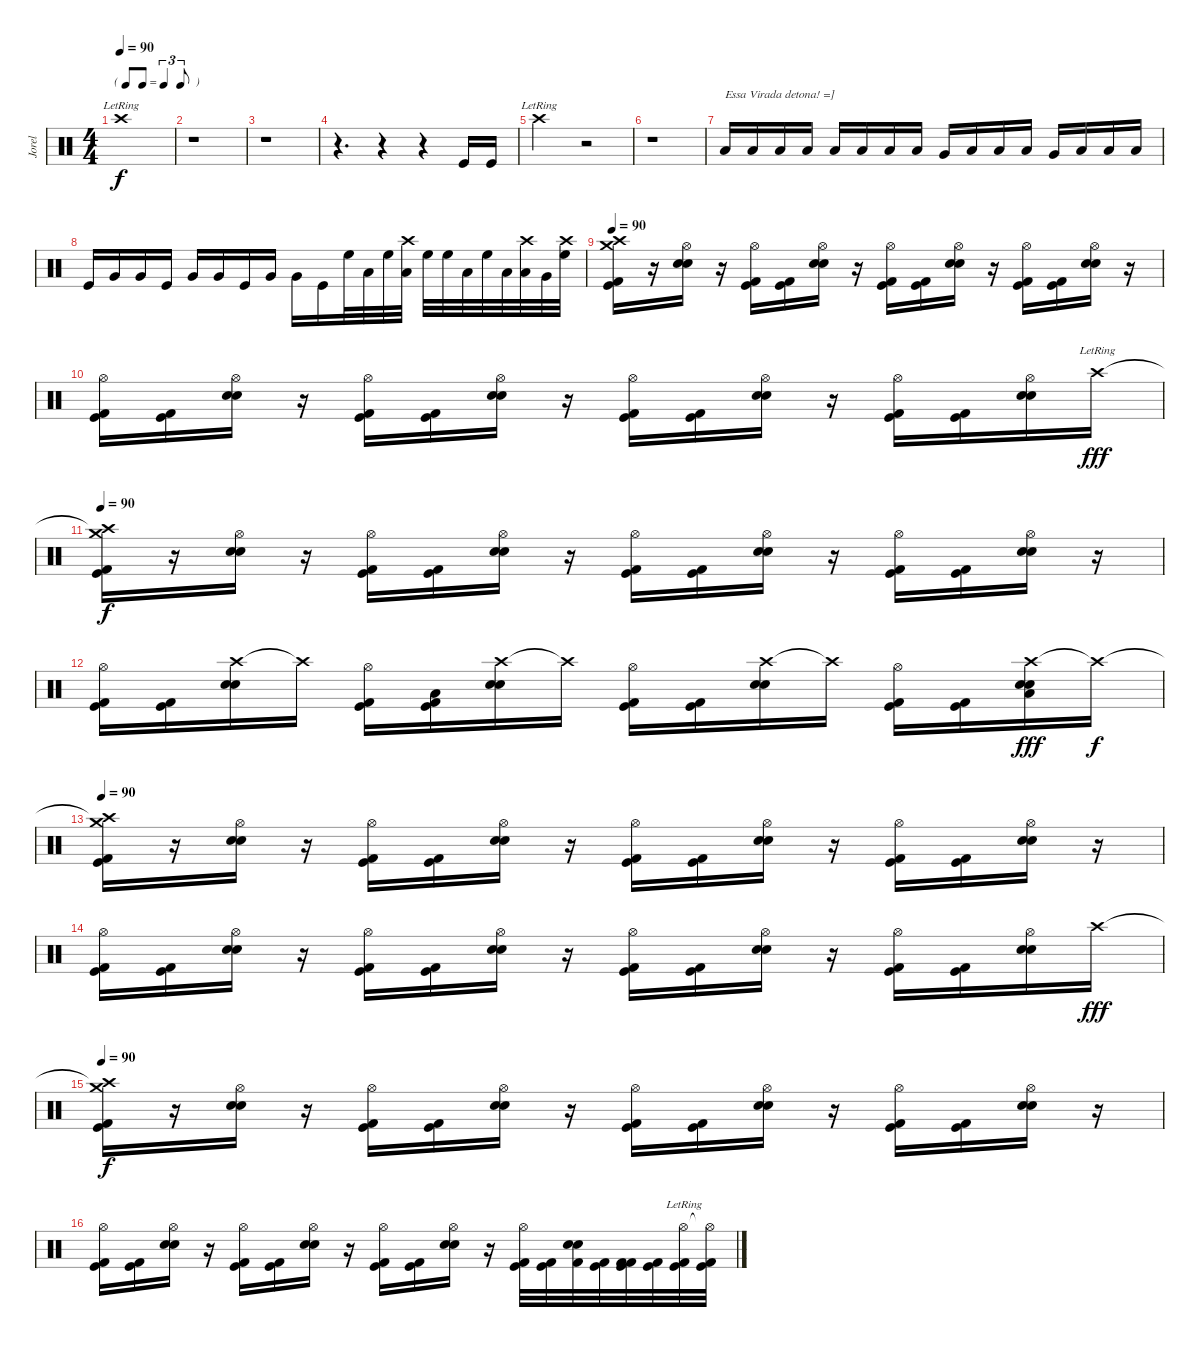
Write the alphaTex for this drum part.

\track ("Jorel" "Jorel") {instrument percussion}
\staff {score}
\articulation defaults
\ts (4 4)
\tf triplet8th
\tempo 90
\clef neutral
\ks c "Crash high (hit)"{lr}.1{dy f}
|
r.1 |
r.1 |
r.4{d} r.4 r.4 "Kick (hit)".16 "Kick (hit)".16 |
"Crash high (hit)"{lr}.2 r.2 |
r.1 |
"Low Tom (hit)".16{txt "Essa Virada detona! =]"} "Low Tom (hit)".16 "Low Tom (hit)".16 "Low Tom (hit)".16 "Low Tom (hit)".16 "Low Tom (hit)".16 "Low Tom (hit)".16 "Low Tom (hit)".16 "Very Low Tom (hit)".16 "Low Tom (hit)".16 "Low Tom (hit)".16 "Low Tom (hit)".16 "Very Low Tom (hit)".16 "Low Tom (hit)".16 "Low Tom (hit)".16 "Low Tom (hit)".16 |
"Kick (hit)".16 "Very Low Tom (hit)".16 "Very Low Tom (hit)".16 "Kick (hit)".16 "Very Low Tom (hit)".16 "Very Low Tom (hit)".16 "Kick (hit)".16 "Very Low Tom (hit)".16 "Very Low Tom (hit)".16 "Kick (hit)".16 "High Floor Tom (hit)".32 "Low Tom (hit)".32 "High Floor Tom (hit)".32 ("Crash high (hit)" "Low Tom (hit)").32 "High Floor Tom (hit)".32 "High Floor Tom (hit)".32 "Low Tom (hit)".32 "High Floor Tom (hit)".32 "Low Tom (hit)".32 ("Crash high (hit)" "Low Tom (hit)").32 "Very Low Tom (hit)".32 ("Crash high (hit)" "High Floor Tom (hit)").32 |
\tempo 90
("Crash high (hit)" "Crash medium (hit)" "Kick (hit)" "Kick (hit) 2").16 r.16 ("Hi-Hat (open)" "Electric Snare (hit)" "Snare (hit) 2").16 r.16 ("Hi-Hat (open)" "Kick (hit) 2" "Kick (hit)").16 ("Kick (hit) 2" "Kick (hit)").16 ("Hi-Hat (open)" "Electric Snare (hit)" "Snare (hit) 2").16 r.16 ("Hi-Hat (open)" "Kick (hit)" "Kick (hit) 2").16 ("Kick (hit) 2" "Kick (hit)").16 ("Hi-Hat (open)" "Electric Snare (hit)" "Snare (hit) 2").16 r.16 ("Hi-Hat (open)" "Kick (hit) 2" "Kick (hit)").16 ("Kick (hit) 2" "Kick (hit)").16 ("Hi-Hat (open)" "Electric Snare (hit)" "Snare (hit) 2").16 r.16 |
("Hi-Hat (open)" "Kick (hit)" "Kick (hit) 2").16 ("Kick (hit) 2" "Kick (hit)").16 ("Hi-Hat (open)" "Electric Snare (hit)" "Snare (hit) 2").16 r.16 ("Hi-Hat (open)" "Kick (hit) 2" "Kick (hit)").16 ("Kick (hit) 2" "Kick (hit)").16 ("Hi-Hat (open)" "Electric Snare (hit)" "Snare (hit) 2").16 r.16 ("Hi-Hat (open)" "Kick (hit)" "Kick (hit) 2").16 ("Kick (hit) 2" "Kick (hit)").16 ("Hi-Hat (open)" "Electric Snare (hit)" "Snare (hit) 2").16 r.16 ("Hi-Hat (open)" "Kick (hit) 2" "Kick (hit)").16 ("Kick (hit) 2" "Kick (hit)").16 ("Hi-Hat (open)" "Electric Snare (hit)" "Snare (hit) 2").16 "Crash high (hit)"{lr}.16{dy fff} |
\tempo 90
("Crash high (hit)"{t} "Crash medium (hit)" "Kick (hit)" "Kick (hit) 2").16{dy f} r.16 ("Hi-Hat (open)" "Electric Snare (hit)" "Snare (hit) 2").16 r.16 ("Hi-Hat (open)" "Kick (hit) 2" "Kick (hit)").16 ("Kick (hit) 2" "Kick (hit)").16 ("Hi-Hat (open)" "Electric Snare (hit)" "Snare (hit) 2").16 r.16 ("Hi-Hat (open)" "Kick (hit)" "Kick (hit) 2").16 ("Kick (hit) 2" "Kick (hit)").16 ("Hi-Hat (open)" "Electric Snare (hit)" "Snare (hit) 2").16 r.16 ("Hi-Hat (open)" "Kick (hit) 2" "Kick (hit)").16 ("Kick (hit) 2" "Kick (hit)").16 ("Hi-Hat (open)" "Electric Snare (hit)" "Snare (hit) 2").16 r.16 |
("Hi-Hat (open)" "Kick (hit)" "Kick (hit) 2").16 ("Kick (hit) 2" "Kick (hit)").16 ("Crash high (hit)" "Electric Snare (hit)" "Snare (hit) 2").16 "Crash high (hit)"{t}.16 ("Hi-Hat (open)" "Kick (hit) 2" "Kick (hit)").16 ("Kick (hit) 2" "Kick (hit)" "Low Tom (hit)").16 ("Crash high (hit)" "Electric Snare (hit)" "Snare (hit) 2").16 "Crash high (hit)"{t}.16 ("Hi-Hat (open)" "Kick (hit)" "Kick (hit) 2").16 ("Kick (hit) 2" "Kick (hit)").16 ("Crash high (hit)" "Electric Snare (hit)" "Snare (hit) 2").16 "Crash high (hit)"{t}.16 ("Hi-Hat (open)" "Kick (hit) 2" "Kick (hit)").16 ("Kick (hit) 2" "Kick (hit)").16 ("Crash high (hit)" "Electric Snare (hit)" "Snare (hit) 2" "Low Tom (hit)").16{dy fff} "Crash high (hit)"{t}.16{dy f} |
\tempo 90
("Crash high (hit)"{t} "Crash medium (hit)" "Kick (hit)" "Kick (hit) 2").16 r.16 ("Hi-Hat (open)" "Electric Snare (hit)" "Snare (hit) 2").16 r.16 ("Hi-Hat (open)" "Kick (hit) 2" "Kick (hit)").16 ("Kick (hit) 2" "Kick (hit)").16 ("Hi-Hat (open)" "Electric Snare (hit)" "Snare (hit) 2").16 r.16 ("Hi-Hat (open)" "Kick (hit)" "Kick (hit) 2").16 ("Kick (hit) 2" "Kick (hit)").16 ("Hi-Hat (open)" "Electric Snare (hit)" "Snare (hit) 2").16 r.16 ("Hi-Hat (open)" "Kick (hit) 2" "Kick (hit)").16 ("Kick (hit) 2" "Kick (hit)").16 ("Hi-Hat (open)" "Electric Snare (hit)" "Snare (hit) 2").16 r.16 |
("Hi-Hat (open)" "Kick (hit)" "Kick (hit) 2").16 ("Kick (hit) 2" "Kick (hit)").16 ("Hi-Hat (open)" "Electric Snare (hit)" "Snare (hit) 2").16 r.16 ("Hi-Hat (open)" "Kick (hit) 2" "Kick (hit)").16 ("Kick (hit) 2" "Kick (hit)").16 ("Hi-Hat (open)" "Electric Snare (hit)" "Snare (hit) 2").16 r.16 ("Hi-Hat (open)" "Kick (hit)" "Kick (hit) 2").16 ("Kick (hit) 2" "Kick (hit)").16 ("Hi-Hat (open)" "Electric Snare (hit)" "Snare (hit) 2").16 r.16 ("Hi-Hat (open)" "Kick (hit) 2" "Kick (hit)").16 ("Kick (hit) 2" "Kick (hit)").16 ("Hi-Hat (open)" "Electric Snare (hit)" "Snare (hit) 2").16 "Crash high (hit)".16{dy fff} |
\tempo 90
("Crash high (hit)"{t} "Crash medium (hit)" "Kick (hit)" "Kick (hit) 2").16{dy f} r.16 ("Hi-Hat (open)" "Electric Snare (hit)" "Snare (hit) 2").16 r.16 ("Hi-Hat (open)" "Kick (hit) 2" "Kick (hit)").16 ("Kick (hit) 2" "Kick (hit)").16 ("Hi-Hat (open)" "Electric Snare (hit)" "Snare (hit) 2").16 r.16 ("Hi-Hat (open)" "Kick (hit)" "Kick (hit) 2").16 ("Kick (hit) 2" "Kick (hit)").16 ("Hi-Hat (open)" "Electric Snare (hit)" "Snare (hit) 2").16 r.16 ("Hi-Hat (open)" "Kick (hit) 2" "Kick (hit)").16 ("Kick (hit) 2" "Kick (hit)").16 ("Hi-Hat (open)" "Electric Snare (hit)" "Snare (hit) 2").16 r.16 |
("Hi-Hat (open)" "Kick (hit)" "Kick (hit) 2").16 ("Kick (hit) 2" "Kick (hit)").16 ("Hi-Hat (open)" "Electric Snare (hit)" "Snare (hit) 2").16 r.16 ("Hi-Hat (open)" "Kick (hit) 2" "Kick (hit)").16 ("Kick (hit) 2" "Kick (hit)").16 ("Hi-Hat (open)" "Electric Snare (hit)" "Snare (hit) 2").16 r.16 ("Hi-Hat (open)" "Kick (hit)" "Kick (hit) 2").16 ("Kick (hit) 2" "Kick (hit)").16 ("Hi-Hat (open)" "Electric Snare (hit)" "Snare (hit) 2").16 r.16 ("Hi-Hat (open)" "Kick (hit) 2" "Kick (hit)").32 ("Kick (hit) 2" "Kick (hit)").32 ("Kick (hit) 2" "Electric Snare (hit)" "Snare (hit) 2").32 ("Kick (hit) 2" "Kick (hit)").32 ("Kick (hit) 2" "Kick (hit) 2" "Kick (hit)").32 ("Kick (hit) 2" "Kick (hit)").32 ("Hi-Hat (open)"{lr} "Kick (hit) 2" "Kick (hit)").32 ("Hi-Hat (open)"{t} "Kick (hit) 2" "Kick (hit)").32
